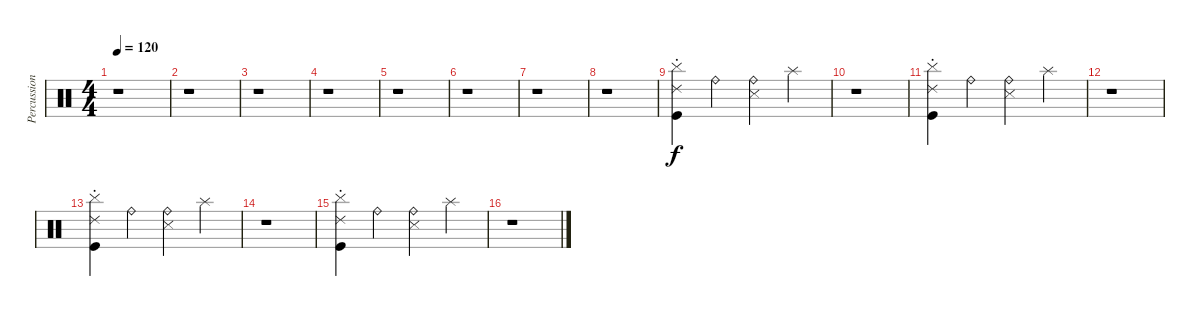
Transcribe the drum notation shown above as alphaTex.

\track ("Percussion" "Percussion") {instrument percussion}
\staff {score}
\articulation defaults
\ts (4 4)
\tempo 120
\clef neutral
\ks c
r.1{dy f} |
r.1 |
r.1 |
r.1 |
r.1 |
r.1 |
r.1 |
r.1 |
("Cymbal (hit)" "Ride (choke) 2" "Kick (hit)").4 "Ride (bell)".4 ("Snare (side stick) 3" "Ride (bell)").4 "Splash (hit)".4 |
r.1 |
("Cymbal (hit)" "Ride (choke) 2" "Kick (hit)").4 "Ride (bell)".4 ("Snare (side stick) 3" "Ride (bell)").4 "Splash (hit)".4 |
r.1 |
("Cymbal (hit)" "Ride (choke) 2" "Kick (hit)").4 "Ride (bell)".4 ("Snare (side stick) 3" "Ride (bell)").4 "Splash (hit)".4 |
r.1 |
("Cymbal (hit)" "Ride (choke) 2" "Kick (hit)").4 "Ride (bell)".4 ("Snare (side stick) 3" "Ride (bell)").4 "Splash (hit)".4 |
r.1
